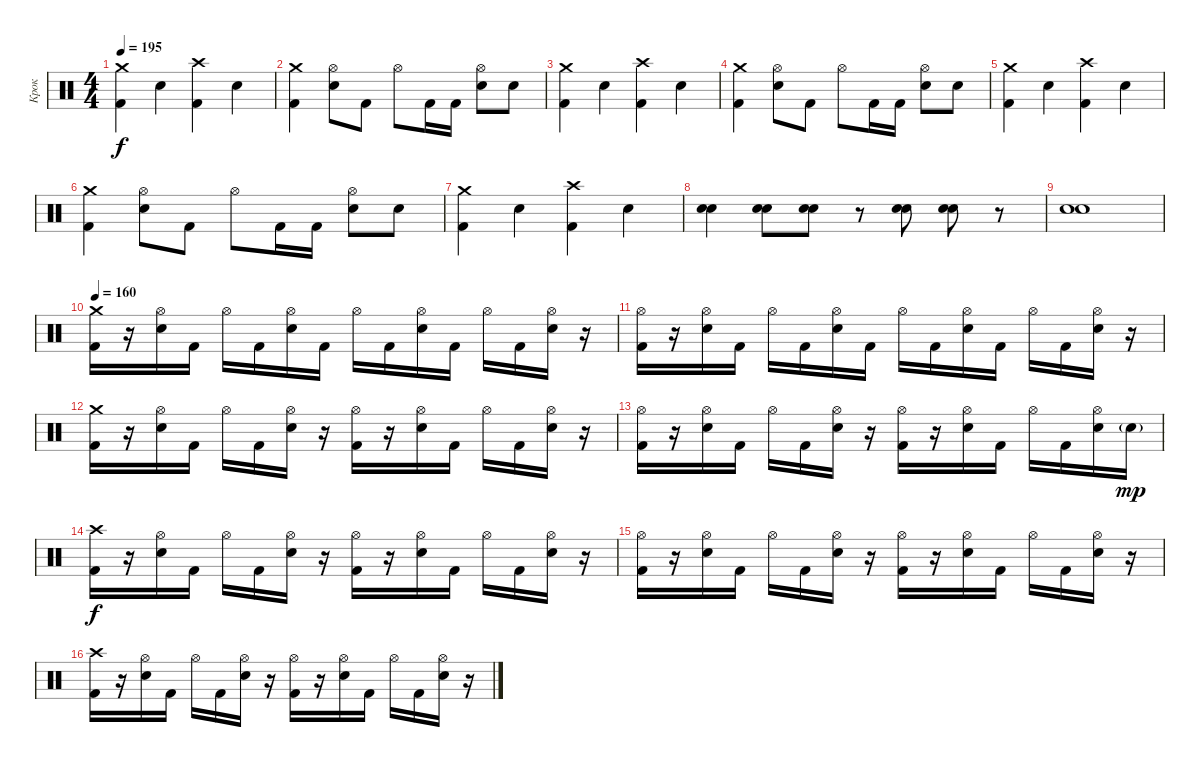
\track ("Крок" "Крок") {instrument percussion}
\staff {score}
\articulation defaults
\ts (4 4)
\tempo 195
\clef neutral
\ks c
("Kick (hit) 2" "Crash medium (hit)").4{dy f} "Electric Snare (hit)".4 ("Kick (hit) 2" "Crash high (hit)").4 "Electric Snare (hit)".4 |
("Kick (hit) 2" "Crash medium (hit)").4 ("Electric Snare (hit)" "Hi-Hat (open)").8 "Kick (hit) 2".8 "Hi-Hat (open)".8 "Kick (hit) 2".16 "Kick (hit) 2".16 ("Electric Snare (hit)" "Hi-Hat (open)").8 "Electric Snare (hit)".8 |
("Kick (hit) 2" "Crash medium (hit)").4 "Electric Snare (hit)".4 ("Kick (hit) 2" "Crash high (hit)").4 "Electric Snare (hit)".4 |
("Kick (hit) 2" "Crash medium (hit)").4 ("Electric Snare (hit)" "Hi-Hat (open)").8 "Kick (hit) 2".8 "Hi-Hat (open)".8 "Kick (hit) 2".16 "Kick (hit) 2".16 ("Electric Snare (hit)" "Hi-Hat (open)").8 "Electric Snare (hit)".8 |
("Kick (hit) 2" "Crash medium (hit)").4 "Electric Snare (hit)".4 ("Kick (hit) 2" "Crash high (hit)").4 "Electric Snare (hit)".4 |
("Kick (hit) 2" "Crash medium (hit)").4 ("Electric Snare (hit)" "Hi-Hat (open)").8 "Kick (hit) 2".8 "Hi-Hat (open)".8 "Kick (hit) 2".16 "Kick (hit) 2".16 ("Electric Snare (hit)" "Hi-Hat (open)").8 "Electric Snare (hit)".8 |
("Kick (hit) 2" "Crash medium (hit)").4 "Electric Snare (hit)".4 ("Kick (hit) 2" "Crash high (hit)").4 "Electric Snare (hit)".4 |
("Electric Snare (hit)" "Electric Snare (hit)").4 ("Electric Snare (hit)" "Electric Snare (hit)").8 ("Electric Snare (hit)" "Electric Snare (hit)").8 r.8 ("Electric Snare (hit)" "Electric Snare (hit)").8 ("Electric Snare (hit)" "Electric Snare (hit)").8 r.8 |
("Electric Snare (hit)" "Electric Snare (hit)").1 |
\tempo 160
("Crash medium (hit)" "Kick (hit) 2").16 r.16 ("Hi-Hat (open)" "Electric Snare (hit)").16 "Kick (hit) 2".16 "Hi-Hat (open)".16 "Kick (hit) 2".16 ("Hi-Hat (open)" "Electric Snare (hit)").16 "Kick (hit) 2".16 "Hi-Hat (open)".16 "Kick (hit) 2".16 ("Hi-Hat (open)" "Electric Snare (hit)").16 "Kick (hit) 2".16 "Hi-Hat (open)".16 "Kick (hit) 2".16 ("Hi-Hat (open)" "Electric Snare (hit)").16 r.16 |
("Hi-Hat (open)" "Kick (hit) 2").16 r.16 ("Hi-Hat (open)" "Electric Snare (hit)").16 "Kick (hit) 2".16 "Hi-Hat (open)".16 "Kick (hit) 2".16 ("Hi-Hat (open)" "Electric Snare (hit)").16 "Kick (hit) 2".16 "Hi-Hat (open)".16 "Kick (hit) 2".16 ("Hi-Hat (open)" "Electric Snare (hit)").16 "Kick (hit) 2".16 "Hi-Hat (open)".16 "Kick (hit) 2".16 ("Hi-Hat (open)" "Electric Snare (hit)").16 r.16 |
("Crash medium (hit)" "Kick (hit) 2").16 r.16 ("Hi-Hat (open)" "Electric Snare (hit)").16 "Kick (hit) 2".16 "Hi-Hat (open)".16 "Kick (hit) 2".16 ("Hi-Hat (open)" "Electric Snare (hit)").16 r.16 ("Hi-Hat (open)" "Kick (hit) 2").16 r.16 ("Hi-Hat (open)" "Electric Snare (hit)").16 "Kick (hit) 2".16 "Hi-Hat (open)".16 "Kick (hit) 2".16 ("Hi-Hat (open)" "Electric Snare (hit)").16 r.16 |
("Hi-Hat (open)" "Kick (hit) 2").16 r.16 ("Hi-Hat (open)" "Electric Snare (hit)").16 "Kick (hit) 2".16 "Hi-Hat (open)".16 "Kick (hit) 2".16 ("Hi-Hat (open)" "Electric Snare (hit)").16 r.16 ("Hi-Hat (open)" "Kick (hit) 2").16 r.16 ("Hi-Hat (open)" "Electric Snare (hit)").16 "Kick (hit) 2".16 "Hi-Hat (open)".16 "Kick (hit) 2".16 ("Hi-Hat (open)" "Electric Snare (hit)").16 "Electric Snare (hit)"{g}.16{dy mp} |
("Crash high (hit)" "Kick (hit) 2").16{dy f} r.16 ("Hi-Hat (open)" "Electric Snare (hit)").16 "Kick (hit) 2".16 "Hi-Hat (open)".16 "Kick (hit) 2".16 ("Hi-Hat (open)" "Electric Snare (hit)").16 r.16 ("Hi-Hat (open)" "Kick (hit) 2").16 r.16 ("Hi-Hat (open)" "Electric Snare (hit)").16 "Kick (hit) 2".16 "Hi-Hat (open)".16 "Kick (hit) 2".16 ("Hi-Hat (open)" "Electric Snare (hit)").16 r.16 |
("Hi-Hat (open)" "Kick (hit) 2").16 r.16 ("Hi-Hat (open)" "Electric Snare (hit)").16 "Kick (hit) 2".16 "Hi-Hat (open)".16 "Kick (hit) 2".16 ("Hi-Hat (open)" "Electric Snare (hit)").16 r.16 ("Hi-Hat (open)" "Kick (hit) 2").16 r.16 ("Hi-Hat (open)" "Electric Snare (hit)").16 "Kick (hit) 2".16 "Hi-Hat (open)".16 "Kick (hit) 2".16 ("Hi-Hat (open)" "Electric Snare (hit)").16 r.16 |
("Crash high (hit)" "Kick (hit) 2").16 r.16 ("Hi-Hat (open)" "Electric Snare (hit)").16 "Kick (hit) 2".16 "Hi-Hat (open)".16 "Kick (hit) 2".16 ("Hi-Hat (open)" "Electric Snare (hit)").16 r.16 ("Hi-Hat (open)" "Kick (hit) 2").16 r.16 ("Hi-Hat (open)" "Electric Snare (hit)").16 "Kick (hit) 2".16 "Hi-Hat (open)".16 "Kick (hit) 2".16 ("Hi-Hat (open)" "Electric Snare (hit)").16 r.16
